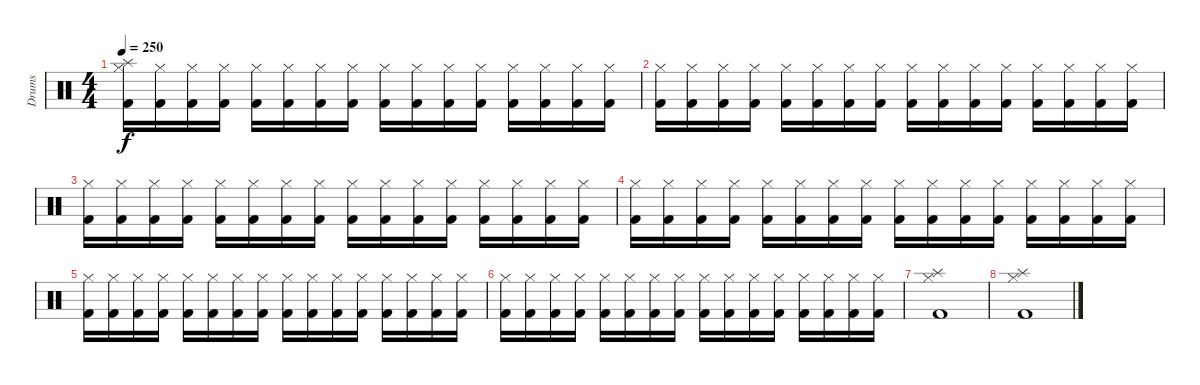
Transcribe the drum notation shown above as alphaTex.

\track ("Drums" "Drums") {instrument percussion}
\staff {score}
\articulation defaults
\ts (4 4)
\tempo 250
\clef neutral
\ks c
("Splash (hit)" "Kick (hit) 2" "Hi-Hat (closed)").16{dy f} ("Kick (hit) 2" "Hi-Hat (closed)").16 ("Kick (hit) 2" "Hi-Hat (closed)").16 ("Kick (hit) 2" "Hi-Hat (closed)").16 ("Kick (hit) 2" "Hi-Hat (closed)").16 ("Kick (hit) 2" "Hi-Hat (closed)").16 ("Kick (hit) 2" "Hi-Hat (closed)").16 ("Kick (hit) 2" "Hi-Hat (closed)").16 ("Kick (hit) 2" "Hi-Hat (closed)").16 ("Kick (hit) 2" "Hi-Hat (closed)").16 ("Kick (hit) 2" "Hi-Hat (closed)").16 ("Kick (hit) 2" "Hi-Hat (closed)").16 ("Kick (hit) 2" "Hi-Hat (closed)").16 ("Kick (hit) 2" "Hi-Hat (closed)").16 ("Kick (hit) 2" "Hi-Hat (closed)").16 ("Kick (hit) 2" "Hi-Hat (closed)").16 |
("Kick (hit) 2" "Hi-Hat (closed)").16 ("Kick (hit) 2" "Hi-Hat (closed)").16 ("Kick (hit) 2" "Hi-Hat (closed)").16 ("Kick (hit) 2" "Hi-Hat (closed)").16 ("Kick (hit) 2" "Hi-Hat (closed)").16 ("Kick (hit) 2" "Hi-Hat (closed)").16 ("Kick (hit) 2" "Hi-Hat (closed)").16 ("Kick (hit) 2" "Hi-Hat (closed)").16 ("Kick (hit) 2" "Hi-Hat (closed)").16 ("Kick (hit) 2" "Hi-Hat (closed)").16 ("Kick (hit) 2" "Hi-Hat (closed)").16 ("Kick (hit) 2" "Hi-Hat (closed)").16 ("Kick (hit) 2" "Hi-Hat (closed)").16 ("Kick (hit) 2" "Hi-Hat (closed)").16 ("Kick (hit) 2" "Hi-Hat (closed)").16 ("Kick (hit) 2" "Hi-Hat (closed)").16 |
("Kick (hit) 2" "Hi-Hat (closed)").16 ("Kick (hit) 2" "Hi-Hat (closed)").16 ("Kick (hit) 2" "Hi-Hat (closed)").16 ("Kick (hit) 2" "Hi-Hat (closed)").16 ("Kick (hit) 2" "Hi-Hat (closed)").16 ("Kick (hit) 2" "Hi-Hat (closed)").16 ("Kick (hit) 2" "Hi-Hat (closed)").16 ("Kick (hit) 2" "Hi-Hat (closed)").16 ("Kick (hit) 2" "Hi-Hat (closed)").16 ("Kick (hit) 2" "Hi-Hat (closed)").16 ("Kick (hit) 2" "Hi-Hat (closed)").16 ("Kick (hit) 2" "Hi-Hat (closed)").16 ("Kick (hit) 2" "Hi-Hat (closed)").16 ("Kick (hit) 2" "Hi-Hat (closed)").16 ("Kick (hit) 2" "Hi-Hat (closed)").16 ("Kick (hit) 2" "Hi-Hat (closed)").16 |
("Kick (hit) 2" "Hi-Hat (closed)").16 ("Kick (hit) 2" "Hi-Hat (closed)").16 ("Kick (hit) 2" "Hi-Hat (closed)").16 ("Kick (hit) 2" "Hi-Hat (closed)").16 ("Kick (hit) 2" "Hi-Hat (closed)").16 ("Kick (hit) 2" "Hi-Hat (closed)").16 ("Kick (hit) 2" "Hi-Hat (closed)").16 ("Kick (hit) 2" "Hi-Hat (closed)").16 ("Kick (hit) 2" "Hi-Hat (closed)").16 ("Kick (hit) 2" "Hi-Hat (closed)").16 ("Kick (hit) 2" "Hi-Hat (closed)").16 ("Kick (hit) 2" "Hi-Hat (closed)").16 ("Kick (hit) 2" "Hi-Hat (closed)").16 ("Kick (hit) 2" "Hi-Hat (closed)").16 ("Kick (hit) 2" "Hi-Hat (closed)").16 ("Kick (hit) 2" "Hi-Hat (closed)").16 |
("Kick (hit) 2" "Hi-Hat (closed)").16 ("Kick (hit) 2" "Hi-Hat (closed)").16 ("Kick (hit) 2" "Hi-Hat (closed)").16 ("Kick (hit) 2" "Hi-Hat (closed)").16 ("Kick (hit) 2" "Hi-Hat (closed)").16 ("Kick (hit) 2" "Hi-Hat (closed)").16 ("Kick (hit) 2" "Hi-Hat (closed)").16 ("Kick (hit) 2" "Hi-Hat (closed)").16 ("Kick (hit) 2" "Hi-Hat (closed)").16 ("Kick (hit) 2" "Hi-Hat (closed)").16 ("Kick (hit) 2" "Hi-Hat (closed)").16 ("Kick (hit) 2" "Hi-Hat (closed)").16 ("Kick (hit) 2" "Hi-Hat (closed)").16 ("Kick (hit) 2" "Hi-Hat (closed)").16 ("Kick (hit) 2" "Hi-Hat (closed)").16 ("Kick (hit) 2" "Hi-Hat (closed)").16 |
("Kick (hit) 2" "Hi-Hat (closed)").16 ("Kick (hit) 2" "Hi-Hat (closed)").16 ("Kick (hit) 2" "Hi-Hat (closed)").16 ("Kick (hit) 2" "Hi-Hat (closed)").16 ("Kick (hit) 2" "Hi-Hat (closed)").16 ("Kick (hit) 2" "Hi-Hat (closed)").16 ("Kick (hit) 2" "Hi-Hat (closed)").16 ("Kick (hit) 2" "Hi-Hat (closed)").16 ("Kick (hit) 2" "Hi-Hat (closed)").16 ("Kick (hit) 2" "Hi-Hat (closed)").16 ("Kick (hit) 2" "Hi-Hat (closed)").16 ("Kick (hit) 2" "Hi-Hat (closed)").16 ("Kick (hit) 2" "Hi-Hat (closed)").16 ("Kick (hit) 2" "Hi-Hat (closed)").16 ("Kick (hit) 2" "Hi-Hat (closed)").16 ("Kick (hit) 2" "Hi-Hat (closed)").16 |
("Splash (hit)" "Kick (hit) 2" "Hi-Hat (closed)").1 |
("Splash (hit)" "Kick (hit) 2" "Hi-Hat (closed)").1
